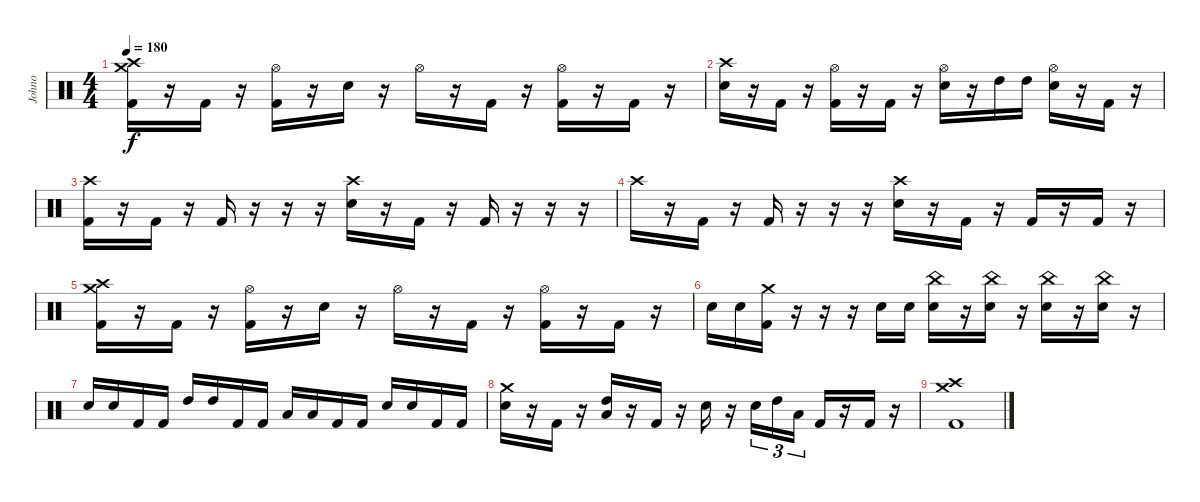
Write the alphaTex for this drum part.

\track (" Johno" " Johno") {instrument percussion}
\staff {score}
\articulation defaults
\ts (4 4)
\tempo 180
\clef neutral
\ks c
("Crash medium (hit)" "Crash high (hit)" "Kick (hit) 2").16{dy f} r.16 "Kick (hit) 2".16 r.16 ("Hi-Hat (open)" "Kick (hit) 2").16 r.16 "Electric Snare (hit)".16 r.16 "Hi-Hat (open)".16 r.16 "Kick (hit) 2".16 r.16 ("Hi-Hat (open)" "Kick (hit) 2").16 r.16 "Kick (hit) 2".16 r.16 |
("Crash high (hit)" "Electric Snare (hit)").16 r.16 "Kick (hit) 2".16 r.16 ("Hi-Hat (open)" "Kick (hit) 2").16 r.16 "Kick (hit) 2".16 r.16 ("Hi-Hat (open)" "Electric Snare (hit)").16 r.16 "High Tom (hit)".16 "High Tom (hit)".16 ("Hi-Hat (open)" "Electric Snare (hit)").16 r.16 "Kick (hit) 2".16 r.16 |
("Crash high (hit)" "Kick (hit) 2").16 r.16 "Kick (hit) 2".16 r.16 "Kick (hit) 2".16 r.16 r.16 r.16 ("Crash high (hit)" "Electric Snare (hit)").16 r.16 "Kick (hit) 2".16 r.16 "Kick (hit) 2".16 r.16 r.16 r.16 |
"Crash high (hit)".16 r.16 "Kick (hit) 2".16 r.16 "Kick (hit) 2".16 r.16 r.16 r.16 ("Crash high (hit)" "Electric Snare (hit)").16 r.16 "Kick (hit) 2".16 r.16 "Kick (hit) 2".16 r.16 "Kick (hit) 2".16 r.16 |
("Crash medium (hit)" "Crash high (hit)" "Kick (hit) 2").16 r.16 "Kick (hit) 2".16 r.16 ("Hi-Hat (open)" "Kick (hit) 2").16 r.16 "Electric Snare (hit)".16 r.16 "Hi-Hat (open)".16 r.16 "Kick (hit) 2".16 r.16 ("Hi-Hat (open)" "Kick (hit) 2").16 r.16 "Kick (hit) 2".16 r.16 |
"Electric Snare (hit)".16 "Electric Snare (hit)".16 ("Crash medium (hit)" "Kick (hit) 2").16 r.16 r.16 r.16 "Electric Snare (hit)".16 "Electric Snare (hit)".16 ("China (hit)" "Electric Snare (hit)").16 r.16 ("China (hit)" "Electric Snare (hit)").16 r.16 ("China (hit)" "Electric Snare (hit)").16 r.16 ("China (hit)" "Electric Snare (hit)").16 r.16 |
"Electric Snare (hit)".16 "Electric Snare (hit)".16 "Kick (hit) 2".16 "Kick (hit) 2".16 "High Tom (hit)".16 "High Tom (hit)".16 "Kick (hit) 2".16 "Kick (hit) 2".16 "Low Floor Tom (hit)".16 "Low Floor Tom (hit)".16 "Kick (hit) 2".16 "Kick (hit) 2".16 "Electric Snare (hit)".16 "Electric Snare (hit)".16 "Kick (hit) 2".16 "Kick (hit) 2".16 |
("Crash medium (hit)" "Electric Snare (hit)").16 r.16 "Kick (hit) 2".16 r.16 ("Low Floor Tom (hit)" "High Tom (hit)").16 r.16 "Kick (hit) 2".16 r.16 "Electric Snare (hit)".16 r.16 "Electric Snare (hit)".16{tu (3 2)} "High Tom (hit)".16{tu (3 2)} "Low Floor Tom (hit)".16{tu (3 2)} "Kick (hit) 2".16 r.16 "Kick (hit) 2".16 r.16 |
("Crash medium (hit)" "Crash high (hit)" "Kick (hit) 2").1
